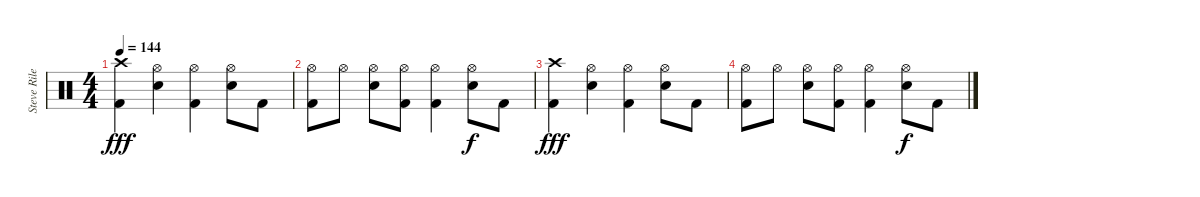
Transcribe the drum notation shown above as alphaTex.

\track ("Steve Riley" "Steve Rile") {instrument percussion}
\staff {score}
\articulation defaults
\ts (4 4)
\tempo 144
\clef neutral
\ks c
("Crash high (hit)" "Kick (hit) 2").4{dy fff} ("Hi-Hat (open)" "Snare (hit) 2").4 ("Hi-Hat (open)" "Kick (hit) 2").4 ("Hi-Hat (open)" "Snare (hit) 2").8 "Kick (hit) 2".8 |
("Hi-Hat (open)" "Kick (hit) 2").8 "Hi-Hat (open)".8 ("Hi-Hat (open)" "Snare (hit) 2").8 ("Hi-Hat (open)" "Kick (hit) 2").8 ("Hi-Hat (open)" "Kick (hit) 2").4 ("Hi-Hat (open)" "Snare (hit) 2").8{dy f} "Kick (hit) 2".8 |
("Crash high (hit)" "Kick (hit) 2").4{dy fff} ("Hi-Hat (open)" "Snare (hit) 2").4 ("Hi-Hat (open)" "Kick (hit) 2").4 ("Hi-Hat (open)" "Snare (hit) 2").8 "Kick (hit) 2".8 |
("Hi-Hat (open)" "Kick (hit) 2").8 "Hi-Hat (open)".8 ("Hi-Hat (open)" "Snare (hit) 2").8 ("Hi-Hat (open)" "Kick (hit) 2").8 ("Hi-Hat (open)" "Kick (hit) 2").4 ("Hi-Hat (open)" "Snare (hit) 2").8{dy f} "Kick (hit) 2".8
